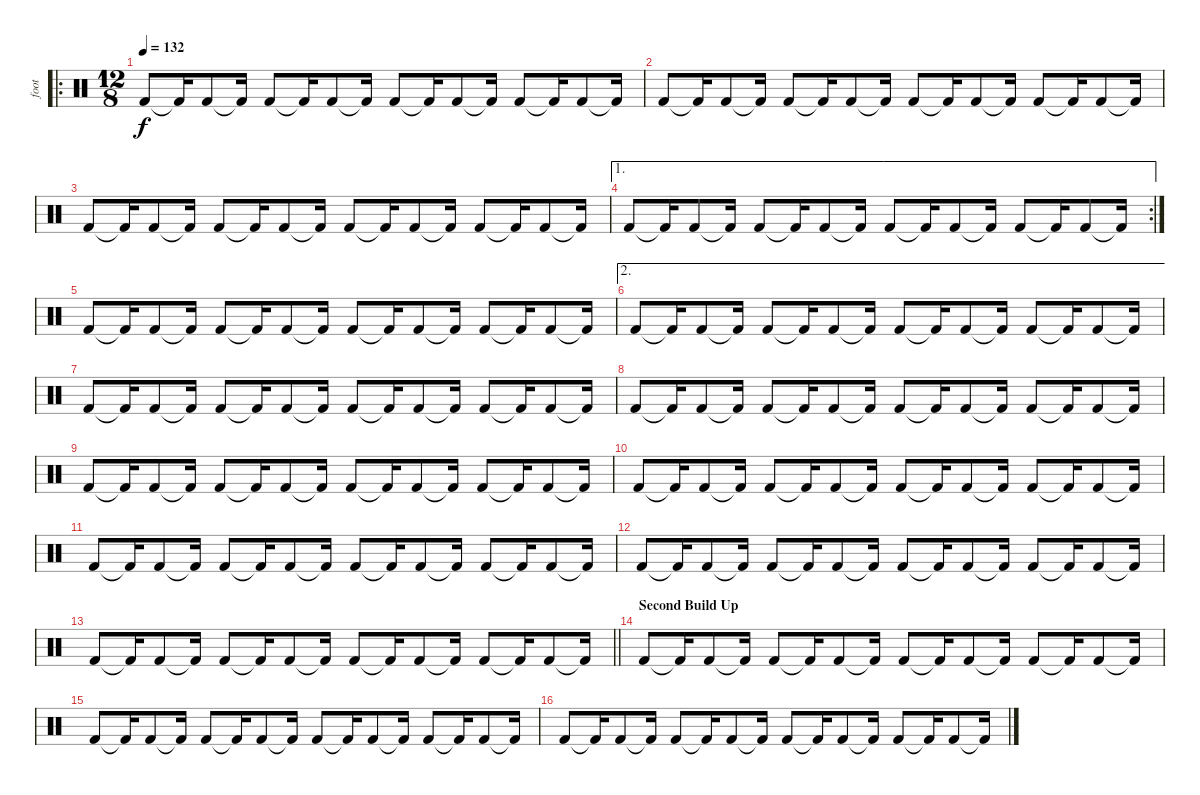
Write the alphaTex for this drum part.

\track ("foot" "foot") {instrument percussion}
\staff {score}
\articulation defaults
\ro
\ts (12 8)
\tempo 132
\clef neutral
\ks c "Kick (hit) 2".8{dy f} "Kick (hit) 2"{t}.16 "Kick (hit) 2".8 "Kick (hit) 2"{t}.16 "Kick (hit) 2".8 "Kick (hit) 2"{t}.16 "Kick (hit) 2".8 "Kick (hit) 2"{t}.16 "Kick (hit) 2".8 "Kick (hit) 2"{t}.16 "Kick (hit) 2".8 "Kick (hit) 2"{t}.16 "Kick (hit) 2".8 "Kick (hit) 2"{t}.16 "Kick (hit) 2".8 "Kick (hit) 2"{t}.16
|
"Kick (hit) 2".8 "Kick (hit) 2"{t}.16 "Kick (hit) 2".8 "Kick (hit) 2"{t}.16 "Kick (hit) 2".8 "Kick (hit) 2"{t}.16 "Kick (hit) 2".8 "Kick (hit) 2"{t}.16 "Kick (hit) 2".8 "Kick (hit) 2"{t}.16 "Kick (hit) 2".8 "Kick (hit) 2"{t}.16 "Kick (hit) 2".8 "Kick (hit) 2"{t}.16 "Kick (hit) 2".8 "Kick (hit) 2"{t}.16 |
"Kick (hit) 2".8 "Kick (hit) 2"{t}.16 "Kick (hit) 2".8 "Kick (hit) 2"{t}.16 "Kick (hit) 2".8 "Kick (hit) 2"{t}.16 "Kick (hit) 2".8 "Kick (hit) 2"{t}.16 "Kick (hit) 2".8 "Kick (hit) 2"{t}.16 "Kick (hit) 2".8 "Kick (hit) 2"{t}.16 "Kick (hit) 2".8 "Kick (hit) 2"{t}.16 "Kick (hit) 2".8 "Kick (hit) 2"{t}.16 |
\ae 1
\rc 2 "Kick (hit) 2".8 "Kick (hit) 2"{t}.16 "Kick (hit) 2".8 "Kick (hit) 2"{t}.16 "Kick (hit) 2".8 "Kick (hit) 2"{t}.16 "Kick (hit) 2".8 "Kick (hit) 2"{t}.16 "Kick (hit) 2".8 "Kick (hit) 2"{t}.16 "Kick (hit) 2".8 "Kick (hit) 2"{t}.16 "Kick (hit) 2".8 "Kick (hit) 2"{t}.16 "Kick (hit) 2".8 "Kick (hit) 2"{t}.16
|
"Kick (hit) 2".8 "Kick (hit) 2"{t}.16 "Kick (hit) 2".8 "Kick (hit) 2"{t}.16 "Kick (hit) 2".8 "Kick (hit) 2"{t}.16 "Kick (hit) 2".8 "Kick (hit) 2"{t}.16 "Kick (hit) 2".8 "Kick (hit) 2"{t}.16 "Kick (hit) 2".8 "Kick (hit) 2"{t}.16 "Kick (hit) 2".8 "Kick (hit) 2"{t}.16 "Kick (hit) 2".8 "Kick (hit) 2"{t}.16 |
\ae 2 "Kick (hit) 2".8 "Kick (hit) 2"{t}.16 "Kick (hit) 2".8 "Kick (hit) 2"{t}.16 "Kick (hit) 2".8 "Kick (hit) 2"{t}.16 "Kick (hit) 2".8 "Kick (hit) 2"{t}.16 "Kick (hit) 2".8 "Kick (hit) 2"{t}.16 "Kick (hit) 2".8 "Kick (hit) 2"{t}.16 "Kick (hit) 2".8 "Kick (hit) 2"{t}.16 "Kick (hit) 2".8 "Kick (hit) 2"{t}.16
|
"Kick (hit) 2".8 "Kick (hit) 2"{t}.16 "Kick (hit) 2".8 "Kick (hit) 2"{t}.16 "Kick (hit) 2".8 "Kick (hit) 2"{t}.16 "Kick (hit) 2".8 "Kick (hit) 2"{t}.16 "Kick (hit) 2".8 "Kick (hit) 2"{t}.16 "Kick (hit) 2".8 "Kick (hit) 2"{t}.16 "Kick (hit) 2".8 "Kick (hit) 2"{t}.16 "Kick (hit) 2".8 "Kick (hit) 2"{t}.16 |
"Kick (hit) 2".8 "Kick (hit) 2"{t}.16 "Kick (hit) 2".8 "Kick (hit) 2"{t}.16 "Kick (hit) 2".8 "Kick (hit) 2"{t}.16 "Kick (hit) 2".8 "Kick (hit) 2"{t}.16 "Kick (hit) 2".8 "Kick (hit) 2"{t}.16 "Kick (hit) 2".8 "Kick (hit) 2"{t}.16 "Kick (hit) 2".8 "Kick (hit) 2"{t}.16 "Kick (hit) 2".8 "Kick (hit) 2"{t}.16 |
"Kick (hit) 2".8 "Kick (hit) 2"{t}.16 "Kick (hit) 2".8 "Kick (hit) 2"{t}.16 "Kick (hit) 2".8 "Kick (hit) 2"{t}.16 "Kick (hit) 2".8 "Kick (hit) 2"{t}.16 "Kick (hit) 2".8 "Kick (hit) 2"{t}.16 "Kick (hit) 2".8 "Kick (hit) 2"{t}.16 "Kick (hit) 2".8 "Kick (hit) 2"{t}.16 "Kick (hit) 2".8 "Kick (hit) 2"{t}.16 |
"Kick (hit) 2".8 "Kick (hit) 2"{t}.16 "Kick (hit) 2".8 "Kick (hit) 2"{t}.16 "Kick (hit) 2".8 "Kick (hit) 2"{t}.16 "Kick (hit) 2".8 "Kick (hit) 2"{t}.16 "Kick (hit) 2".8 "Kick (hit) 2"{t}.16 "Kick (hit) 2".8 "Kick (hit) 2"{t}.16 "Kick (hit) 2".8 "Kick (hit) 2"{t}.16 "Kick (hit) 2".8 "Kick (hit) 2"{t}.16 |
"Kick (hit) 2".8 "Kick (hit) 2"{t}.16 "Kick (hit) 2".8 "Kick (hit) 2"{t}.16 "Kick (hit) 2".8 "Kick (hit) 2"{t}.16 "Kick (hit) 2".8 "Kick (hit) 2"{t}.16 "Kick (hit) 2".8 "Kick (hit) 2"{t}.16 "Kick (hit) 2".8 "Kick (hit) 2"{t}.16 "Kick (hit) 2".8 "Kick (hit) 2"{t}.16 "Kick (hit) 2".8 "Kick (hit) 2"{t}.16 |
"Kick (hit) 2".8 "Kick (hit) 2"{t}.16 "Kick (hit) 2".8 "Kick (hit) 2"{t}.16 "Kick (hit) 2".8 "Kick (hit) 2"{t}.16 "Kick (hit) 2".8 "Kick (hit) 2"{t}.16 "Kick (hit) 2".8 "Kick (hit) 2"{t}.16 "Kick (hit) 2".8 "Kick (hit) 2"{t}.16 "Kick (hit) 2".8 "Kick (hit) 2"{t}.16 "Kick (hit) 2".8 "Kick (hit) 2"{t}.16 |
\barLineRight lightlight "Kick (hit) 2".8 "Kick (hit) 2"{t}.16 "Kick (hit) 2".8 "Kick (hit) 2"{t}.16 "Kick (hit) 2".8 "Kick (hit) 2"{t}.16 "Kick (hit) 2".8 "Kick (hit) 2"{t}.16 "Kick (hit) 2".8 "Kick (hit) 2"{t}.16 "Kick (hit) 2".8 "Kick (hit) 2"{t}.16 "Kick (hit) 2".8 "Kick (hit) 2"{t}.16 "Kick (hit) 2".8 "Kick (hit) 2"{t}.16
|
\section ("" "Second Build Up")
"Kick (hit) 2".8 "Kick (hit) 2"{t}.16 "Kick (hit) 2".8 "Kick (hit) 2"{t}.16 "Kick (hit) 2".8 "Kick (hit) 2"{t}.16 "Kick (hit) 2".8 "Kick (hit) 2"{t}.16 "Kick (hit) 2".8 "Kick (hit) 2"{t}.16 "Kick (hit) 2".8 "Kick (hit) 2"{t}.16 "Kick (hit) 2".8 "Kick (hit) 2"{t}.16 "Kick (hit) 2".8 "Kick (hit) 2"{t}.16 |
"Kick (hit) 2".8 "Kick (hit) 2"{t}.16 "Kick (hit) 2".8 "Kick (hit) 2"{t}.16 "Kick (hit) 2".8 "Kick (hit) 2"{t}.16 "Kick (hit) 2".8 "Kick (hit) 2"{t}.16 "Kick (hit) 2".8 "Kick (hit) 2"{t}.16 "Kick (hit) 2".8 "Kick (hit) 2"{t}.16 "Kick (hit) 2".8 "Kick (hit) 2"{t}.16 "Kick (hit) 2".8 "Kick (hit) 2"{t}.16 |
"Kick (hit) 2".8 "Kick (hit) 2"{t}.16 "Kick (hit) 2".8 "Kick (hit) 2"{t}.16 "Kick (hit) 2".8 "Kick (hit) 2"{t}.16 "Kick (hit) 2".8 "Kick (hit) 2"{t}.16 "Kick (hit) 2".8 "Kick (hit) 2"{t}.16 "Kick (hit) 2".8 "Kick (hit) 2"{t}.16 "Kick (hit) 2".8 "Kick (hit) 2"{t}.16 "Kick (hit) 2".8 "Kick (hit) 2"{t}.16
